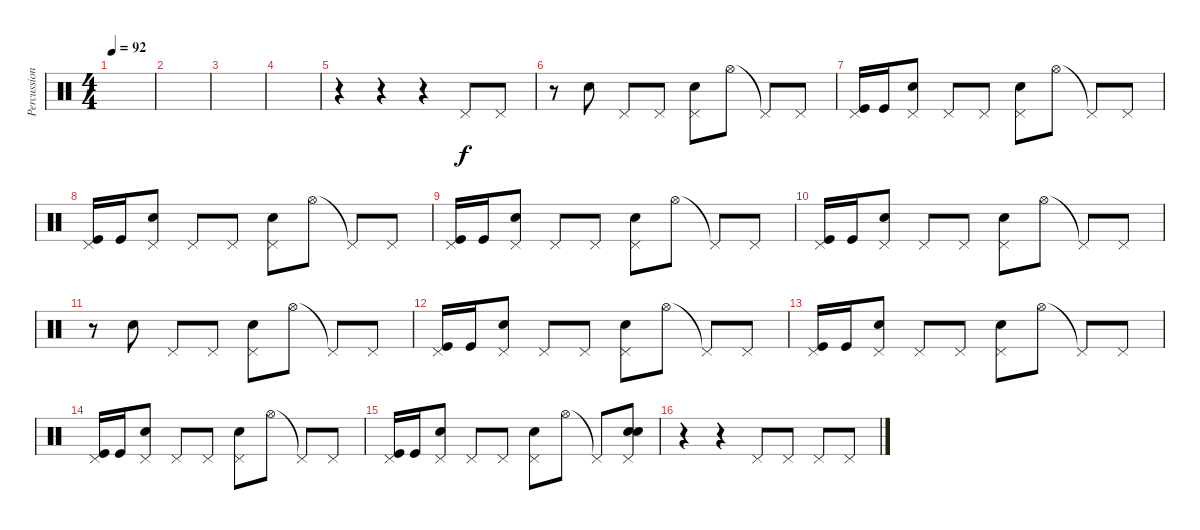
\track ("Percussions (Etn)" "Percussion") {instrument percussion}
\staff {score}
\articulation defaults
\ts (4 4)
\tempo 92
\clef neutral
\ks c
|
|
|
|
r.4 r.4 r.4 "Pedal Hi-Hat (hit)".8 "Pedal Hi-Hat (hit)".8 |
r.8 "Electric Snare (hit)".8 "Pedal Hi-Hat (hit)".8 "Pedal Hi-Hat (hit)".8 ("Pedal Hi-Hat (hit)" "Electric Snare (hit)").8 "Hi-Hat (open)".8 "Pedal Hi-Hat (hit)"{t}.8 "Pedal Hi-Hat (hit)".8 |
("Pedal Hi-Hat (hit)" "Kick (hit)").16 "Kick (hit)".16 ("Pedal Hi-Hat (hit)" "Electric Snare (hit)").8 "Pedal Hi-Hat (hit)".8 "Pedal Hi-Hat (hit)".8 ("Pedal Hi-Hat (hit)" "Electric Snare (hit)").8 "Hi-Hat (open)".8 "Pedal Hi-Hat (hit)"{t}.8 "Pedal Hi-Hat (hit)".8 |
("Pedal Hi-Hat (hit)" "Kick (hit)").16 "Kick (hit)".16 ("Pedal Hi-Hat (hit)" "Electric Snare (hit)").8 "Pedal Hi-Hat (hit)".8 "Pedal Hi-Hat (hit)".8 ("Pedal Hi-Hat (hit)" "Electric Snare (hit)").8 "Hi-Hat (open)".8 "Pedal Hi-Hat (hit)"{t}.8 "Pedal Hi-Hat (hit)".8 |
("Pedal Hi-Hat (hit)" "Kick (hit)").16 "Kick (hit)".16 ("Pedal Hi-Hat (hit)" "Electric Snare (hit)").8 "Pedal Hi-Hat (hit)".8 "Pedal Hi-Hat (hit)".8 ("Pedal Hi-Hat (hit)" "Electric Snare (hit)").8 "Hi-Hat (open)".8 "Pedal Hi-Hat (hit)"{t}.8 "Pedal Hi-Hat (hit)".8 |
("Pedal Hi-Hat (hit)" "Kick (hit)").16 "Kick (hit)".16 ("Pedal Hi-Hat (hit)" "Electric Snare (hit)").8 "Pedal Hi-Hat (hit)".8 "Pedal Hi-Hat (hit)".8 ("Pedal Hi-Hat (hit)" "Electric Snare (hit)").8 "Hi-Hat (open)".8 "Pedal Hi-Hat (hit)"{t}.8 "Pedal Hi-Hat (hit)".8 |
r.8 "Electric Snare (hit)".8 "Pedal Hi-Hat (hit)".8 "Pedal Hi-Hat (hit)".8 ("Pedal Hi-Hat (hit)" "Electric Snare (hit)").8 "Hi-Hat (open)".8 "Pedal Hi-Hat (hit)"{t}.8 "Pedal Hi-Hat (hit)".8 |
("Pedal Hi-Hat (hit)" "Kick (hit)").16 "Kick (hit)".16 ("Pedal Hi-Hat (hit)" "Electric Snare (hit)").8 "Pedal Hi-Hat (hit)".8 "Pedal Hi-Hat (hit)".8 ("Pedal Hi-Hat (hit)" "Electric Snare (hit)").8 "Hi-Hat (open)".8 "Pedal Hi-Hat (hit)"{t}.8 "Pedal Hi-Hat (hit)".8 |
("Pedal Hi-Hat (hit)" "Kick (hit)").16 "Kick (hit)".16 ("Pedal Hi-Hat (hit)" "Electric Snare (hit)").8 "Pedal Hi-Hat (hit)".8 "Pedal Hi-Hat (hit)".8 ("Pedal Hi-Hat (hit)" "Electric Snare (hit)").8 "Hi-Hat (open)".8 "Pedal Hi-Hat (hit)"{t}.8 "Pedal Hi-Hat (hit)".8 |
("Pedal Hi-Hat (hit)" "Kick (hit)").16 "Kick (hit)".16 ("Pedal Hi-Hat (hit)" "Electric Snare (hit)").8 "Pedal Hi-Hat (hit)".8 "Pedal Hi-Hat (hit)".8 ("Pedal Hi-Hat (hit)" "Electric Snare (hit)").8 "Hi-Hat (open)".8 "Pedal Hi-Hat (hit)"{t}.8 "Pedal Hi-Hat (hit)".8 |
("Pedal Hi-Hat (hit)" "Kick (hit)").16 "Kick (hit)".16 ("Pedal Hi-Hat (hit)" "Electric Snare (hit)").8 "Pedal Hi-Hat (hit)".8 "Pedal Hi-Hat (hit)".8 ("Pedal Hi-Hat (hit)" "Electric Snare (hit)").8 "Hi-Hat (open)".8 "Pedal Hi-Hat (hit)"{t}.8 ("Pedal Hi-Hat (hit)" "Electric Snare (hit)" "Snare (hit) 2").8{bd 480} |
r.4 r.4 "Pedal Hi-Hat (hit)".8 "Pedal Hi-Hat (hit)".8 "Pedal Hi-Hat (hit)".8 "Pedal Hi-Hat (hit)".8
